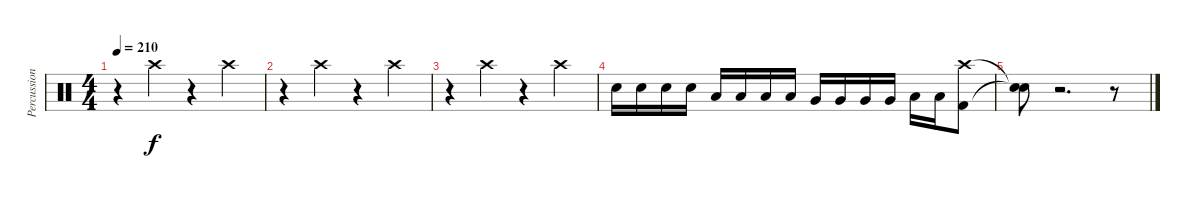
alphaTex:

\track ("Percussion" "Percussion") {instrument percussion}
\staff {score}
\articulation defaults
\ts (4 4)
\tempo 210
\clef neutral
\ks c
r.4{dy f} "Crash high (hit)".4 r.4 "Crash high (hit)".4 |
r.4 "Crash high (hit)".4 r.4 "Crash high (hit)".4 |
r.4 "Crash high (hit)".4 r.4 "Crash high (hit)".4 |
"Electric Snare (hit)".16 "Electric Snare (hit)".16 "Electric Snare (hit)".16 "Electric Snare (hit)".16 "Low Tom (hit)".16 "Low Tom (hit)".16 "Low Tom (hit)".16 "Low Tom (hit)".16 "Very Low Tom (hit)".16 "Very Low Tom (hit)".16 "Very Low Tom (hit)".16 "Very Low Tom (hit)".16 "Low Floor Tom (hit)".16 "Low Floor Tom (hit)".16 ("Crash high (hit)" "Kick (hit) 2").8 |
("Snare (hit)"{t} "Snare (hit)"{t}).8 r.2{d} r.8
